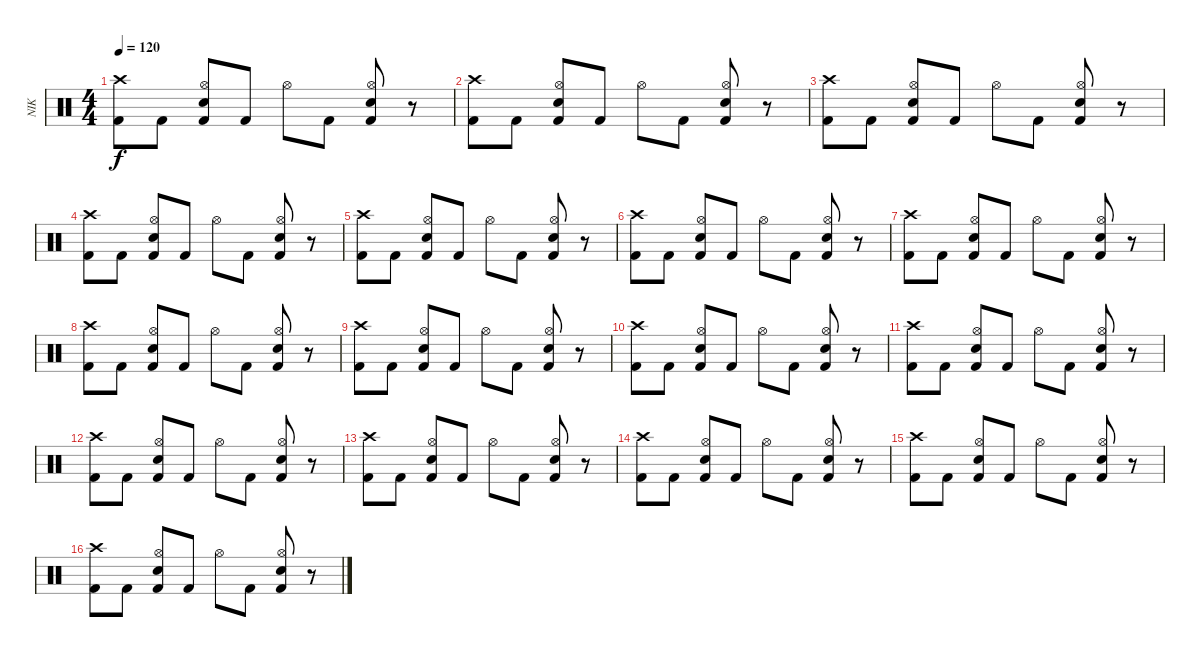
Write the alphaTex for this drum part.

\track ("NIK" "NIK") {instrument percussion}
\staff {score}
\articulation defaults
\ts (4 4)
\tempo 120
\clef neutral
\ks c
("Crash high (hit)" "Kick (hit) 2").8{dy f} "Kick (hit) 2".8 ("Kick (hit) 2" "Hi-Hat (open)" "Snare (hit) 2").8 "Kick (hit) 2".8 "Hi-Hat (open)".8 "Kick (hit) 2".8 ("Kick (hit) 2" "Hi-Hat (open)" "Snare (hit) 2").8 r.8 |
("Crash high (hit)" "Kick (hit) 2").8 "Kick (hit) 2".8 ("Kick (hit) 2" "Hi-Hat (open)" "Snare (hit) 2").8 "Kick (hit) 2".8 "Hi-Hat (open)".8 "Kick (hit) 2".8 ("Kick (hit) 2" "Hi-Hat (open)" "Snare (hit) 2").8 r.8 |
("Crash high (hit)" "Kick (hit) 2").8 "Kick (hit) 2".8 ("Kick (hit) 2" "Hi-Hat (open)" "Snare (hit) 2").8 "Kick (hit) 2".8 "Hi-Hat (open)".8 "Kick (hit) 2".8 ("Kick (hit) 2" "Hi-Hat (open)" "Snare (hit) 2").8 r.8 |
("Crash high (hit)" "Kick (hit) 2").8 "Kick (hit) 2".8 ("Kick (hit) 2" "Hi-Hat (open)" "Snare (hit) 2").8 "Kick (hit) 2".8 "Hi-Hat (open)".8 "Kick (hit) 2".8 ("Kick (hit) 2" "Hi-Hat (open)" "Snare (hit) 2").8 r.8 |
("Crash high (hit)" "Kick (hit) 2").8 "Kick (hit) 2".8 ("Kick (hit) 2" "Hi-Hat (open)" "Snare (hit) 2").8 "Kick (hit) 2".8 "Hi-Hat (open)".8 "Kick (hit) 2".8 ("Kick (hit) 2" "Hi-Hat (open)" "Snare (hit) 2").8 r.8 |
("Crash high (hit)" "Kick (hit) 2").8 "Kick (hit) 2".8 ("Kick (hit) 2" "Hi-Hat (open)" "Snare (hit) 2").8 "Kick (hit) 2".8 "Hi-Hat (open)".8 "Kick (hit) 2".8 ("Kick (hit) 2" "Hi-Hat (open)" "Snare (hit) 2").8 r.8 |
("Crash high (hit)" "Kick (hit) 2").8 "Kick (hit) 2".8 ("Kick (hit) 2" "Hi-Hat (open)" "Snare (hit) 2").8 "Kick (hit) 2".8 "Hi-Hat (open)".8 "Kick (hit) 2".8 ("Kick (hit) 2" "Hi-Hat (open)" "Snare (hit) 2").8 r.8 |
("Crash high (hit)" "Kick (hit) 2").8 "Kick (hit) 2".8 ("Kick (hit) 2" "Hi-Hat (open)" "Snare (hit) 2").8 "Kick (hit) 2".8 "Hi-Hat (open)".8 "Kick (hit) 2".8 ("Kick (hit) 2" "Hi-Hat (open)" "Snare (hit) 2").8 r.8 |
("Crash high (hit)" "Kick (hit) 2").8 "Kick (hit) 2".8 ("Kick (hit) 2" "Hi-Hat (open)" "Snare (hit) 2").8 "Kick (hit) 2".8 "Hi-Hat (open)".8 "Kick (hit) 2".8 ("Kick (hit) 2" "Hi-Hat (open)" "Snare (hit) 2").8 r.8 |
("Crash high (hit)" "Kick (hit) 2").8 "Kick (hit) 2".8 ("Kick (hit) 2" "Hi-Hat (open)" "Snare (hit) 2").8 "Kick (hit) 2".8 "Hi-Hat (open)".8 "Kick (hit) 2".8 ("Kick (hit) 2" "Hi-Hat (open)" "Snare (hit) 2").8 r.8 |
("Crash high (hit)" "Kick (hit) 2").8 "Kick (hit) 2".8 ("Kick (hit) 2" "Hi-Hat (open)" "Snare (hit) 2").8 "Kick (hit) 2".8 "Hi-Hat (open)".8 "Kick (hit) 2".8 ("Kick (hit) 2" "Hi-Hat (open)" "Snare (hit) 2").8 r.8 |
("Crash high (hit)" "Kick (hit) 2").8 "Kick (hit) 2".8 ("Kick (hit) 2" "Hi-Hat (open)" "Snare (hit) 2").8 "Kick (hit) 2".8 "Hi-Hat (open)".8 "Kick (hit) 2".8 ("Kick (hit) 2" "Hi-Hat (open)" "Snare (hit) 2").8 r.8 |
("Crash high (hit)" "Kick (hit) 2").8 "Kick (hit) 2".8 ("Kick (hit) 2" "Hi-Hat (open)" "Snare (hit) 2").8 "Kick (hit) 2".8 "Hi-Hat (open)".8 "Kick (hit) 2".8 ("Kick (hit) 2" "Hi-Hat (open)" "Snare (hit) 2").8 r.8 |
("Crash high (hit)" "Kick (hit) 2").8 "Kick (hit) 2".8 ("Kick (hit) 2" "Hi-Hat (open)" "Snare (hit) 2").8 "Kick (hit) 2".8 "Hi-Hat (open)".8 "Kick (hit) 2".8 ("Kick (hit) 2" "Hi-Hat (open)" "Snare (hit) 2").8 r.8 |
("Crash high (hit)" "Kick (hit) 2").8 "Kick (hit) 2".8 ("Kick (hit) 2" "Hi-Hat (open)" "Snare (hit) 2").8 "Kick (hit) 2".8 "Hi-Hat (open)".8 "Kick (hit) 2".8 ("Kick (hit) 2" "Hi-Hat (open)" "Snare (hit) 2").8 r.8 |
("Crash high (hit)" "Kick (hit) 2").8 "Kick (hit) 2".8 ("Kick (hit) 2" "Hi-Hat (open)" "Snare (hit) 2").8 "Kick (hit) 2".8 "Hi-Hat (open)".8 "Kick (hit) 2".8 ("Kick (hit) 2" "Hi-Hat (open)" "Snare (hit) 2").8 r.8
